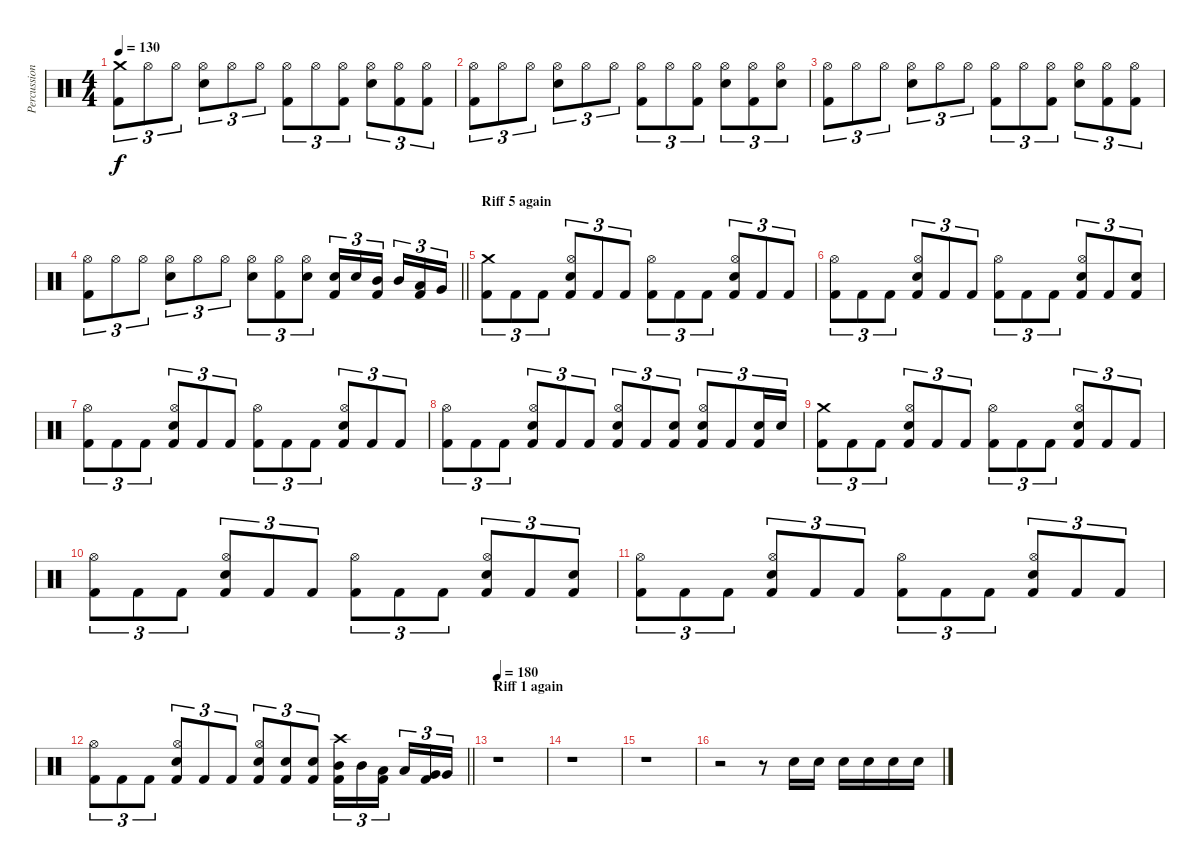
\track ("Percussion" "Percussion") {instrument percussion}
\staff {score}
\articulation defaults
\ts (4 4)
\tempo 130
\clef neutral
\ks c
("Crash medium (hit)" "Kick (hit) 2").8{tu (3 2) dy f} "Hi-Hat (open)".8{tu (3 2)} "Hi-Hat (open)".8{tu (3 2)} ("Hi-Hat (open)" "Snare (hit) 2").8{tu (3 2)} "Hi-Hat (open)".8{tu (3 2)} "Hi-Hat (open)".8{tu (3 2)} ("Hi-Hat (open)" "Kick (hit) 2").8{tu (3 2)} "Hi-Hat (open)".8{tu (3 2)} ("Hi-Hat (open)" "Kick (hit) 2").8{tu (3 2)} ("Hi-Hat (open)" "Snare (hit) 2").8{tu (3 2)} ("Hi-Hat (open)" "Kick (hit) 2").8{tu (3 2)} ("Hi-Hat (open)" "Kick (hit) 2").8{tu (3 2)} |
("Hi-Hat (open)" "Kick (hit) 2").8{tu (3 2)} "Hi-Hat (open)".8{tu (3 2)} "Hi-Hat (open)".8{tu (3 2)} ("Hi-Hat (open)" "Snare (hit) 2").8{tu (3 2)} "Hi-Hat (open)".8{tu (3 2)} "Hi-Hat (open)".8{tu (3 2)} ("Hi-Hat (open)" "Kick (hit) 2").8{tu (3 2)} "Hi-Hat (open)".8{tu (3 2)} ("Hi-Hat (open)" "Kick (hit) 2").8{tu (3 2)} ("Hi-Hat (open)" "Snare (hit) 2").8{tu (3 2)} ("Hi-Hat (open)" "Kick (hit) 2").8{tu (3 2)} ("Hi-Hat (open)" "Snare (hit) 2").8{tu (3 2)} |
("Hi-Hat (open)" "Kick (hit) 2").8{tu (3 2)} "Hi-Hat (open)".8{tu (3 2)} "Hi-Hat (open)".8{tu (3 2)} ("Hi-Hat (open)" "Snare (hit) 2").8{tu (3 2)} "Hi-Hat (open)".8{tu (3 2)} "Hi-Hat (open)".8{tu (3 2)} ("Hi-Hat (open)" "Kick (hit) 2").8{tu (3 2)} "Hi-Hat (open)".8{tu (3 2)} ("Hi-Hat (open)" "Kick (hit) 2").8{tu (3 2)} ("Hi-Hat (open)" "Snare (hit) 2").8{tu (3 2)} ("Hi-Hat (open)" "Kick (hit) 2").8{tu (3 2)} ("Hi-Hat (open)" "Kick (hit) 2").8{tu (3 2)} |
\barLineRight lightlight
("Hi-Hat (open)" "Kick (hit) 2").8{tu (3 2)} "Hi-Hat (open)".8{tu (3 2)} "Hi-Hat (open)".8{tu (3 2)} ("Hi-Hat (open)" "Snare (hit) 2").8{tu (3 2)} "Hi-Hat (open)".8{tu (3 2)} "Hi-Hat (open)".8{tu (3 2)} ("Hi-Hat (open)" "Snare (hit) 2").8{tu (3 2)} ("Hi-Hat (open)" "Kick (hit) 2").8{tu (3 2)} ("Hi-Hat (open)" "Snare (hit) 2").8{tu (3 2)} ("Kick (hit) 2" "Snare (hit) 2").16{tu (3 2)} "Snare (hit) 2".16{tu (3 2)} ("Kick (hit) 2" "Mid Tom (hit)").16{tu (3 2)} "Mid Tom (hit)".16{tu (3 2)} ("Kick (hit) 2" "Low Tom (hit)").16{tu (3 2)} "Very Low Tom (hit)".16{tu (3 2)} |
\section ("" "Riff 5 again")
("Crash medium (hit)" "Kick (hit) 2").8{tu (3 2)} "Kick (hit) 2".8{tu (3 2)} "Kick (hit) 2".8{tu (3 2)} ("Kick (hit) 2" "Hi-Hat (open)" "Snare (hit) 2").8{tu (3 2)} "Kick (hit) 2".8{tu (3 2)} "Kick (hit) 2".8{tu (3 2)} ("Hi-Hat (open)" "Kick (hit) 2").8{tu (3 2)} "Kick (hit) 2".8{tu (3 2)} "Kick (hit) 2".8{tu (3 2)} ("Kick (hit) 2" "Hi-Hat (open)" "Snare (hit) 2").8{tu (3 2)} "Kick (hit) 2".8{tu (3 2)} "Kick (hit) 2".8{tu (3 2)} |
("Hi-Hat (open)" "Kick (hit) 2").8{tu (3 2)} "Kick (hit) 2".8{tu (3 2)} "Kick (hit) 2".8{tu (3 2)} ("Kick (hit) 2" "Hi-Hat (open)" "Snare (hit) 2").8{tu (3 2)} "Kick (hit) 2".8{tu (3 2)} "Kick (hit) 2".8{tu (3 2)} ("Hi-Hat (open)" "Kick (hit) 2").8{tu (3 2)} "Kick (hit) 2".8{tu (3 2)} "Kick (hit) 2".8{tu (3 2)} ("Kick (hit) 2" "Hi-Hat (open)" "Snare (hit) 2").8{tu (3 2)} "Kick (hit) 2".8{tu (3 2)} ("Kick (hit) 2" "Snare (hit) 2").8{tu (3 2)} |
("Hi-Hat (open)" "Kick (hit) 2").8{tu (3 2)} "Kick (hit) 2".8{tu (3 2)} "Kick (hit) 2".8{tu (3 2)} ("Kick (hit) 2" "Hi-Hat (open)" "Snare (hit) 2").8{tu (3 2)} "Kick (hit) 2".8{tu (3 2)} "Kick (hit) 2".8{tu (3 2)} ("Hi-Hat (open)" "Kick (hit) 2").8{tu (3 2)} "Kick (hit) 2".8{tu (3 2)} "Kick (hit) 2".8{tu (3 2)} ("Kick (hit) 2" "Hi-Hat (open)" "Snare (hit) 2").8{tu (3 2)} "Kick (hit) 2".8{tu (3 2)} "Kick (hit) 2".8{tu (3 2)} |
("Hi-Hat (open)" "Kick (hit) 2").8{tu (3 2)} "Kick (hit) 2".8{tu (3 2)} "Kick (hit) 2".8{tu (3 2)} ("Kick (hit) 2" "Hi-Hat (open)" "Snare (hit) 2").8{tu (3 2)} "Kick (hit) 2".8{tu (3 2)} "Kick (hit) 2".8{tu (3 2)} ("Kick (hit) 2" "Hi-Hat (open)" "Snare (hit) 2").8{tu (3 2)} "Kick (hit) 2".8{tu (3 2)} ("Kick (hit) 2" "Snare (hit) 2").8{tu (3 2)} ("Kick (hit) 2" "Hi-Hat (open)" "Snare (hit) 2").8{tu (3 2)} "Kick (hit) 2".8{tu (3 2)} ("Kick (hit) 2" "Snare (hit) 2").16{tu (3 2)} "Snare (hit) 2".16{tu (3 2)} |
("Crash medium (hit)" "Kick (hit) 2").8{tu (3 2)} "Kick (hit) 2".8{tu (3 2)} "Kick (hit) 2".8{tu (3 2)} ("Kick (hit) 2" "Hi-Hat (open)" "Snare (hit) 2").8{tu (3 2)} "Kick (hit) 2".8{tu (3 2)} "Kick (hit) 2".8{tu (3 2)} ("Hi-Hat (open)" "Kick (hit) 2").8{tu (3 2)} "Kick (hit) 2".8{tu (3 2)} "Kick (hit) 2".8{tu (3 2)} ("Kick (hit) 2" "Hi-Hat (open)" "Snare (hit) 2").8{tu (3 2)} "Kick (hit) 2".8{tu (3 2)} "Kick (hit) 2".8{tu (3 2)} |
("Hi-Hat (open)" "Kick (hit) 2").8{tu (3 2)} "Kick (hit) 2".8{tu (3 2)} "Kick (hit) 2".8{tu (3 2)} ("Kick (hit) 2" "Hi-Hat (open)" "Snare (hit) 2").8{tu (3 2)} "Kick (hit) 2".8{tu (3 2)} "Kick (hit) 2".8{tu (3 2)} ("Hi-Hat (open)" "Kick (hit) 2").8{tu (3 2)} "Kick (hit) 2".8{tu (3 2)} "Kick (hit) 2".8{tu (3 2)} ("Kick (hit) 2" "Hi-Hat (open)" "Snare (hit) 2").8{tu (3 2)} "Kick (hit) 2".8{tu (3 2)} ("Kick (hit) 2" "Snare (hit) 2").8{tu (3 2)} |
("Hi-Hat (open)" "Kick (hit) 2").8{tu (3 2)} "Kick (hit) 2".8{tu (3 2)} "Kick (hit) 2".8{tu (3 2)} ("Kick (hit) 2" "Hi-Hat (open)" "Snare (hit) 2").8{tu (3 2)} "Kick (hit) 2".8{tu (3 2)} "Kick (hit) 2".8{tu (3 2)} ("Hi-Hat (open)" "Kick (hit) 2").8{tu (3 2)} "Kick (hit) 2".8{tu (3 2)} "Kick (hit) 2".8{tu (3 2)} ("Kick (hit) 2" "Hi-Hat (open)" "Snare (hit) 2").8{tu (3 2)} "Kick (hit) 2".8{tu (3 2)} "Kick (hit) 2".8{tu (3 2)} |
\barLineRight lightlight
("Hi-Hat (open)" "Kick (hit) 2").8{tu (3 2)} "Kick (hit) 2".8{tu (3 2)} "Kick (hit) 2".8{tu (3 2)} ("Kick (hit) 2" "Hi-Hat (open)" "Snare (hit) 2").8{tu (3 2)} "Kick (hit) 2".8{tu (3 2)} "Kick (hit) 2".8{tu (3 2)} ("Kick (hit) 2" "Hi-Hat (open)" "Snare (hit) 2").8{tu (3 2)} ("Kick (hit) 2" "Snare (hit) 2").8{tu (3 2)} ("Kick (hit) 2" "Snare (hit) 2").8{tu (3 2)} ("Kick (hit) 2" "Crash high (hit)" "Mid Tom (hit)").16{tu (3 2)} "Mid Tom (hit)".16{tu (3 2)} ("Kick (hit) 2" "Low Tom (hit)").16{tu (3 2)} "Low Tom (hit)".16{tu (3 2)} ("Kick (hit) 2" "Very Low Tom (hit)").16{tu (3 2)} "Very Low Tom (hit)".16{tu (3 2)} |
\section ("" "Riff 1 again")
\tempo 180
r.1 |
r.1 |
r.1 |
r.2 r.8 "Snare (hit) 2".16 "Snare (hit) 2".16 "Snare (hit) 2".16 "Snare (hit) 2".16 "Snare (hit) 2".16 "Snare (hit) 2".16
